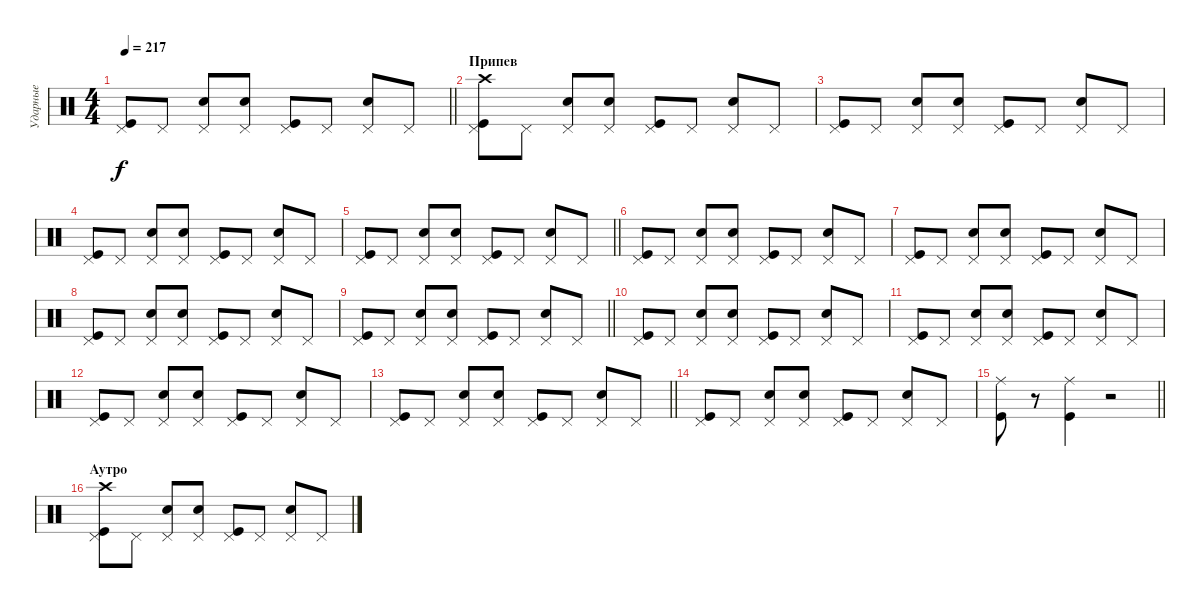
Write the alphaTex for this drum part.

\track ("Ударные" "Ударные") {instrument percussion}
\staff {score}
\articulation defaults
\ts (4 4)
\tempo 217
\clef neutral
\barLineRight lightlight
\ks c
("Pedal Hi-Hat (hit)" "Kick (hit)").8{dy f} "Pedal Hi-Hat (hit)".8 ("Pedal Hi-Hat (hit)" "Snare (hit) 2").8 ("Pedal Hi-Hat (hit)" "Snare (hit) 2").8 ("Pedal Hi-Hat (hit)" "Kick (hit)").8 "Pedal Hi-Hat (hit)".8 ("Pedal Hi-Hat (hit)" "Snare (hit) 2").8 "Pedal Hi-Hat (hit)".8 |
\section ("" "Припев")
("Pedal Hi-Hat (hit)" "Kick (hit)" "Crash high (hit)").8 "Pedal Hi-Hat (hit)".8 ("Pedal Hi-Hat (hit)" "Snare (hit) 2").8 ("Pedal Hi-Hat (hit)" "Snare (hit) 2").8 ("Pedal Hi-Hat (hit)" "Kick (hit)").8 "Pedal Hi-Hat (hit)".8 ("Pedal Hi-Hat (hit)" "Snare (hit) 2").8 "Pedal Hi-Hat (hit)".8 |
("Pedal Hi-Hat (hit)" "Kick (hit)").8 "Pedal Hi-Hat (hit)".8 ("Pedal Hi-Hat (hit)" "Snare (hit) 2").8 ("Pedal Hi-Hat (hit)" "Snare (hit) 2").8 ("Pedal Hi-Hat (hit)" "Kick (hit)").8 "Pedal Hi-Hat (hit)".8 ("Pedal Hi-Hat (hit)" "Snare (hit) 2").8 "Pedal Hi-Hat (hit)".8 |
("Pedal Hi-Hat (hit)" "Kick (hit)").8 "Pedal Hi-Hat (hit)".8 ("Pedal Hi-Hat (hit)" "Snare (hit) 2").8 ("Pedal Hi-Hat (hit)" "Snare (hit) 2").8 ("Pedal Hi-Hat (hit)" "Kick (hit)").8 "Pedal Hi-Hat (hit)".8 ("Pedal Hi-Hat (hit)" "Snare (hit) 2").8 "Pedal Hi-Hat (hit)".8 |
\barLineRight lightlight
("Pedal Hi-Hat (hit)" "Kick (hit)").8 "Pedal Hi-Hat (hit)".8 ("Pedal Hi-Hat (hit)" "Snare (hit) 2").8 ("Pedal Hi-Hat (hit)" "Snare (hit) 2").8 ("Pedal Hi-Hat (hit)" "Kick (hit)").8 "Pedal Hi-Hat (hit)".8 ("Pedal Hi-Hat (hit)" "Snare (hit) 2").8 "Pedal Hi-Hat (hit)".8 |
("Pedal Hi-Hat (hit)" "Kick (hit)").8 "Pedal Hi-Hat (hit)".8 ("Pedal Hi-Hat (hit)" "Snare (hit) 2").8 ("Pedal Hi-Hat (hit)" "Snare (hit) 2").8 ("Pedal Hi-Hat (hit)" "Kick (hit)").8 "Pedal Hi-Hat (hit)".8 ("Pedal Hi-Hat (hit)" "Snare (hit) 2").8 "Pedal Hi-Hat (hit)".8 |
("Pedal Hi-Hat (hit)" "Kick (hit)").8 "Pedal Hi-Hat (hit)".8 ("Pedal Hi-Hat (hit)" "Snare (hit) 2").8 ("Pedal Hi-Hat (hit)" "Snare (hit) 2").8 ("Pedal Hi-Hat (hit)" "Kick (hit)").8 "Pedal Hi-Hat (hit)".8 ("Pedal Hi-Hat (hit)" "Snare (hit) 2").8 "Pedal Hi-Hat (hit)".8 |
("Pedal Hi-Hat (hit)" "Kick (hit)").8 "Pedal Hi-Hat (hit)".8 ("Pedal Hi-Hat (hit)" "Snare (hit) 2").8 ("Pedal Hi-Hat (hit)" "Snare (hit) 2").8 ("Pedal Hi-Hat (hit)" "Kick (hit)").8 "Pedal Hi-Hat (hit)".8 ("Pedal Hi-Hat (hit)" "Snare (hit) 2").8 "Pedal Hi-Hat (hit)".8 |
\barLineRight lightlight
("Pedal Hi-Hat (hit)" "Kick (hit)").8 "Pedal Hi-Hat (hit)".8 ("Pedal Hi-Hat (hit)" "Snare (hit) 2").8 ("Pedal Hi-Hat (hit)" "Snare (hit) 2").8 ("Pedal Hi-Hat (hit)" "Kick (hit)").8 "Pedal Hi-Hat (hit)".8 ("Pedal Hi-Hat (hit)" "Snare (hit) 2").8 "Pedal Hi-Hat (hit)".8 |
("Pedal Hi-Hat (hit)" "Kick (hit)").8 "Pedal Hi-Hat (hit)".8 ("Pedal Hi-Hat (hit)" "Snare (hit) 2").8 ("Pedal Hi-Hat (hit)" "Snare (hit) 2").8 ("Pedal Hi-Hat (hit)" "Kick (hit)").8 "Pedal Hi-Hat (hit)".8 ("Pedal Hi-Hat (hit)" "Snare (hit) 2").8 "Pedal Hi-Hat (hit)".8 |
("Pedal Hi-Hat (hit)" "Kick (hit)").8 "Pedal Hi-Hat (hit)".8 ("Pedal Hi-Hat (hit)" "Snare (hit) 2").8 ("Pedal Hi-Hat (hit)" "Snare (hit) 2").8 ("Pedal Hi-Hat (hit)" "Kick (hit)").8 "Pedal Hi-Hat (hit)".8 ("Pedal Hi-Hat (hit)" "Snare (hit) 2").8 "Pedal Hi-Hat (hit)".8 |
("Pedal Hi-Hat (hit)" "Kick (hit)").8 "Pedal Hi-Hat (hit)".8 ("Pedal Hi-Hat (hit)" "Snare (hit) 2").8 ("Pedal Hi-Hat (hit)" "Snare (hit) 2").8 ("Pedal Hi-Hat (hit)" "Kick (hit)").8 "Pedal Hi-Hat (hit)".8 ("Pedal Hi-Hat (hit)" "Snare (hit) 2").8 "Pedal Hi-Hat (hit)".8 |
\barLineRight lightlight
("Pedal Hi-Hat (hit)" "Kick (hit)").8 "Pedal Hi-Hat (hit)".8 ("Pedal Hi-Hat (hit)" "Snare (hit) 2").8 ("Pedal Hi-Hat (hit)" "Snare (hit) 2").8 ("Pedal Hi-Hat (hit)" "Kick (hit)").8 "Pedal Hi-Hat (hit)".8 ("Pedal Hi-Hat (hit)" "Snare (hit) 2").8 "Pedal Hi-Hat (hit)".8 |
("Pedal Hi-Hat (hit)" "Kick (hit)").8 "Pedal Hi-Hat (hit)".8 ("Pedal Hi-Hat (hit)" "Snare (hit) 2").8 ("Pedal Hi-Hat (hit)" "Snare (hit) 2").8 ("Pedal Hi-Hat (hit)" "Kick (hit)").8 "Pedal Hi-Hat (hit)".8 ("Pedal Hi-Hat (hit)" "Snare (hit) 2").8 "Pedal Hi-Hat (hit)".8 |
\barLineRight lightlight
("Kick (hit)" "Ride (middle)").8 r.8 ("Kick (hit)" "Ride (middle)").4 r.2 |
\section ("" "Аутро")
("Pedal Hi-Hat (hit)" "Kick (hit)" "Crash high (hit)").8 "Pedal Hi-Hat (hit)".8 ("Pedal Hi-Hat (hit)" "Snare (hit) 2").8 ("Pedal Hi-Hat (hit)" "Snare (hit) 2").8 ("Pedal Hi-Hat (hit)" "Kick (hit)").8 "Pedal Hi-Hat (hit)".8 ("Pedal Hi-Hat (hit)" "Snare (hit) 2").8 "Pedal Hi-Hat (hit)".8
